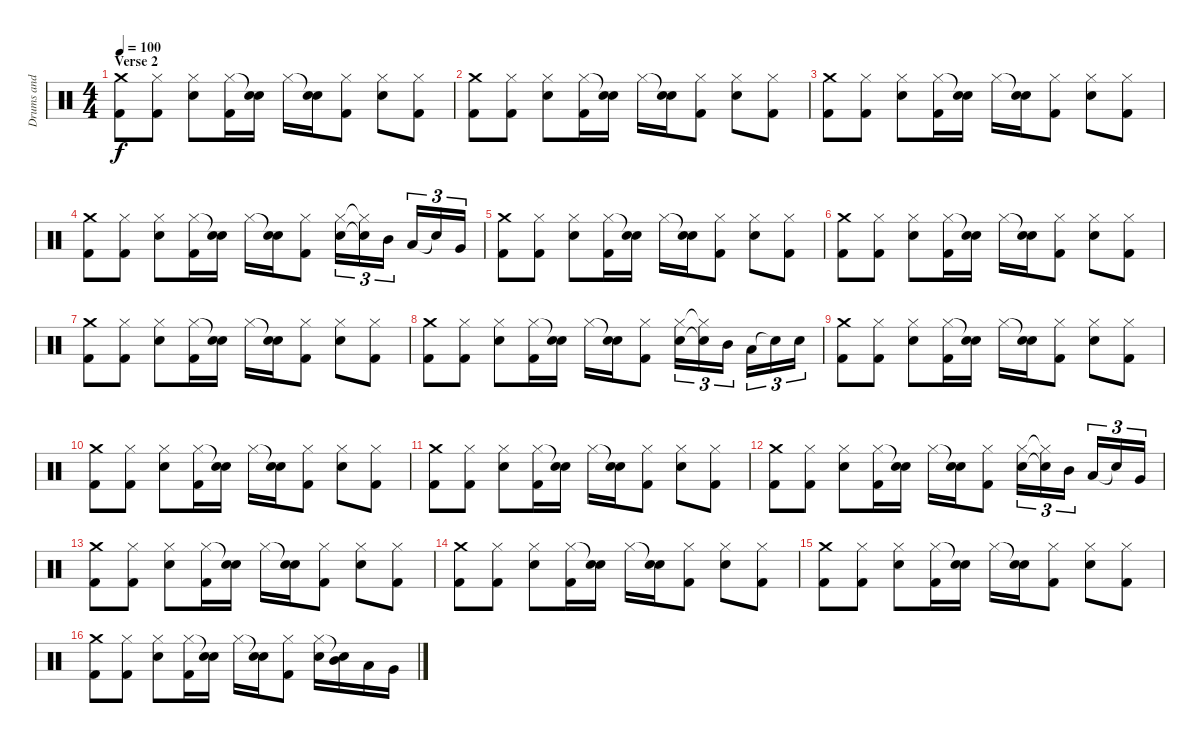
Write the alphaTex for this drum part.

\track ("Drums and Percussion" "Drums and ") {instrument percussion}
\staff {score}
\articulation defaults
\ts (4 4)
\section ("" "Verse 2")
\tempo 100
\clef neutral
\ks c
("Crash medium (hit)" "Kick (hit) 2").8{dy f} ("Hi-Hat (closed)" "Kick (hit) 2").8 ("Hi-Hat (closed)" "Electric Snare (hit)").8 ("Hi-Hat (closed)" "Kick (hit) 2").16 ("Snare (hit)"{t} "Electric Snare (hit)").16 "Hi-Hat (closed)".16 ("Snare (hit)"{t} "Electric Snare (hit)").16 ("Hi-Hat (closed)" "Kick (hit) 2").8 ("Hi-Hat (closed)" "Electric Snare (hit)").8 ("Hi-Hat (closed)" "Kick (hit) 2").8 |
("Crash medium (hit)" "Kick (hit) 2").8 ("Hi-Hat (closed)" "Kick (hit) 2").8 ("Hi-Hat (closed)" "Electric Snare (hit)").8 ("Hi-Hat (closed)" "Kick (hit) 2").16 ("Snare (hit)"{t} "Electric Snare (hit)").16 "Hi-Hat (closed)".16 ("Snare (hit)"{t} "Electric Snare (hit)").16 ("Hi-Hat (closed)" "Kick (hit) 2").8 ("Hi-Hat (closed)" "Electric Snare (hit)").8 ("Hi-Hat (closed)" "Kick (hit) 2").8 |
("Crash medium (hit)" "Kick (hit) 2").8 ("Hi-Hat (closed)" "Kick (hit) 2").8 ("Hi-Hat (closed)" "Electric Snare (hit)").8 ("Hi-Hat (closed)" "Kick (hit) 2").16 ("Snare (hit)"{t} "Electric Snare (hit)").16 "Hi-Hat (closed)".16 ("Snare (hit)"{t} "Electric Snare (hit)").16 ("Hi-Hat (closed)" "Kick (hit) 2").8 ("Hi-Hat (closed)" "Electric Snare (hit)").8 ("Hi-Hat (closed)" "Kick (hit) 2").8 |
("Crash medium (hit)" "Kick (hit) 2").8 ("Hi-Hat (closed)" "Kick (hit) 2").8 ("Hi-Hat (closed)" "Electric Snare (hit)").8 ("Hi-Hat (closed)" "Kick (hit) 2").16 ("Snare (hit)"{t} "Electric Snare (hit)").16 "Hi-Hat (closed)".16 ("Snare (hit)"{t} "Electric Snare (hit)").16 ("Hi-Hat (closed)" "Kick (hit) 2").8 ("Hi-Hat (closed)" "Electric Snare (hit)").16{tu (3 2)} ("Hi-Hat (closed)"{t} "Snare (hit)"{t}).16{tu (3 2)} "Mid Tom (hit)".16{tu (3 2)} "Low Tom (hit)".16{tu (3 2)} "Snare (hit)"{t}.16{tu (3 2)} "Very Low Tom (hit)".16{tu (3 2)} |
("Crash medium (hit)" "Kick (hit) 2").8 ("Hi-Hat (closed)" "Kick (hit) 2").8 ("Hi-Hat (closed)" "Electric Snare (hit)").8 ("Hi-Hat (closed)" "Kick (hit) 2").16 ("Snare (hit)"{t} "Electric Snare (hit)").16 "Hi-Hat (closed)".16 ("Snare (hit)"{t} "Electric Snare (hit)").16 ("Hi-Hat (closed)" "Kick (hit) 2").8 ("Hi-Hat (closed)" "Electric Snare (hit)").8 ("Hi-Hat (closed)" "Kick (hit) 2").8 |
("Crash medium (hit)" "Kick (hit) 2").8 ("Hi-Hat (closed)" "Kick (hit) 2").8 ("Hi-Hat (closed)" "Electric Snare (hit)").8 ("Hi-Hat (closed)" "Kick (hit) 2").16 ("Snare (hit)"{t} "Electric Snare (hit)").16 "Hi-Hat (closed)".16 ("Snare (hit)"{t} "Electric Snare (hit)").16 ("Hi-Hat (closed)" "Kick (hit) 2").8 ("Hi-Hat (closed)" "Electric Snare (hit)").8 ("Hi-Hat (closed)" "Kick (hit) 2").8 |
("Crash medium (hit)" "Kick (hit) 2").8 ("Hi-Hat (closed)" "Kick (hit) 2").8 ("Hi-Hat (closed)" "Electric Snare (hit)").8 ("Hi-Hat (closed)" "Kick (hit) 2").16 ("Snare (hit)"{t} "Electric Snare (hit)").16 "Hi-Hat (closed)".16 ("Snare (hit)"{t} "Electric Snare (hit)").16 ("Hi-Hat (closed)" "Kick (hit) 2").8 ("Hi-Hat (closed)" "Electric Snare (hit)").8 ("Hi-Hat (closed)" "Kick (hit) 2").8 |
("Crash medium (hit)" "Kick (hit) 2").8 ("Hi-Hat (closed)" "Kick (hit) 2").8 ("Hi-Hat (closed)" "Electric Snare (hit)").8 ("Hi-Hat (closed)" "Kick (hit) 2").16 ("Snare (hit)"{t} "Electric Snare (hit)").16 "Hi-Hat (closed)".16 ("Snare (hit)"{t} "Electric Snare (hit)").16 ("Hi-Hat (closed)" "Kick (hit) 2").8 ("Hi-Hat (closed)" "Electric Snare (hit)").16{tu (3 2)} ("Hi-Hat (closed)"{t} "Snare (hit)"{t}).16{tu (3 2)} "Mid Tom (hit)".16{tu (3 2)} "Low Tom (hit)".16{tu (3 2)} "Snare (hit)"{t}.16{tu (3 2)} "Electric Snare (hit)".16{tu (3 2)} |
("Crash medium (hit)" "Kick (hit) 2").8 ("Hi-Hat (closed)" "Kick (hit) 2").8 ("Hi-Hat (closed)" "Electric Snare (hit)").8 ("Hi-Hat (closed)" "Kick (hit) 2").16 ("Snare (hit)"{t} "Electric Snare (hit)").16 "Hi-Hat (closed)".16 ("Snare (hit)"{t} "Electric Snare (hit)").16 ("Hi-Hat (closed)" "Kick (hit) 2").8 ("Hi-Hat (closed)" "Electric Snare (hit)").8 ("Hi-Hat (closed)" "Kick (hit) 2").8 |
("Crash medium (hit)" "Kick (hit) 2").8 ("Hi-Hat (closed)" "Kick (hit) 2").8 ("Hi-Hat (closed)" "Electric Snare (hit)").8 ("Hi-Hat (closed)" "Kick (hit) 2").16 ("Snare (hit)"{t} "Electric Snare (hit)").16 "Hi-Hat (closed)".16 ("Snare (hit)"{t} "Electric Snare (hit)").16 ("Hi-Hat (closed)" "Kick (hit) 2").8 ("Hi-Hat (closed)" "Electric Snare (hit)").8 ("Hi-Hat (closed)" "Kick (hit) 2").8 |
("Crash medium (hit)" "Kick (hit) 2").8 ("Hi-Hat (closed)" "Kick (hit) 2").8 ("Hi-Hat (closed)" "Electric Snare (hit)").8 ("Hi-Hat (closed)" "Kick (hit) 2").16 ("Snare (hit)"{t} "Electric Snare (hit)").16 "Hi-Hat (closed)".16 ("Snare (hit)"{t} "Electric Snare (hit)").16 ("Hi-Hat (closed)" "Kick (hit) 2").8 ("Hi-Hat (closed)" "Electric Snare (hit)").8 ("Hi-Hat (closed)" "Kick (hit) 2").8 |
("Crash medium (hit)" "Kick (hit) 2").8 ("Hi-Hat (closed)" "Kick (hit) 2").8 ("Hi-Hat (closed)" "Electric Snare (hit)").8 ("Hi-Hat (closed)" "Kick (hit) 2").16 ("Snare (hit)"{t} "Electric Snare (hit)").16 "Hi-Hat (closed)".16 ("Snare (hit)"{t} "Electric Snare (hit)").16 ("Hi-Hat (closed)" "Kick (hit) 2").8 ("Hi-Hat (closed)" "Electric Snare (hit)").16{tu (3 2)} ("Hi-Hat (closed)"{t} "Snare (hit)"{t}).16{tu (3 2)} "Mid Tom (hit)".16{tu (3 2)} "Low Tom (hit)".16{tu (3 2)} "Snare (hit)"{t}.16{tu (3 2)} "Very Low Tom (hit)".16{tu (3 2)} |
("Crash medium (hit)" "Kick (hit) 2").8 ("Hi-Hat (closed)" "Kick (hit) 2").8 ("Hi-Hat (closed)" "Electric Snare (hit)").8 ("Hi-Hat (closed)" "Kick (hit) 2").16 ("Snare (hit)"{t} "Electric Snare (hit)").16 "Hi-Hat (closed)".16 ("Snare (hit)"{t} "Electric Snare (hit)").16 ("Hi-Hat (closed)" "Kick (hit) 2").8 ("Hi-Hat (closed)" "Electric Snare (hit)").8 ("Hi-Hat (closed)" "Kick (hit) 2").8 |
("Crash medium (hit)" "Kick (hit) 2").8 ("Hi-Hat (closed)" "Kick (hit) 2").8 ("Hi-Hat (closed)" "Electric Snare (hit)").8 ("Hi-Hat (closed)" "Kick (hit) 2").16 ("Snare (hit)"{t} "Electric Snare (hit)").16 "Hi-Hat (closed)".16 ("Snare (hit)"{t} "Electric Snare (hit)").16 ("Hi-Hat (closed)" "Kick (hit) 2").8 ("Hi-Hat (closed)" "Electric Snare (hit)").8 ("Hi-Hat (closed)" "Kick (hit) 2").8 |
("Crash medium (hit)" "Kick (hit) 2").8 ("Hi-Hat (closed)" "Kick (hit) 2").8 ("Hi-Hat (closed)" "Electric Snare (hit)").8 ("Hi-Hat (closed)" "Kick (hit) 2").16 ("Snare (hit)"{t} "Electric Snare (hit)").16 "Hi-Hat (closed)".16 ("Snare (hit)"{t} "Electric Snare (hit)").16 ("Hi-Hat (closed)" "Kick (hit) 2").8 ("Hi-Hat (closed)" "Electric Snare (hit)").8 ("Hi-Hat (closed)" "Kick (hit) 2").8 |
("Crash medium (hit)" "Kick (hit) 2").8 ("Hi-Hat (closed)" "Kick (hit) 2").8 ("Hi-Hat (closed)" "Electric Snare (hit)").8 ("Hi-Hat (closed)" "Kick (hit) 2").16 ("Snare (hit)"{t} "Electric Snare (hit)").16 "Hi-Hat (closed)".16 ("Snare (hit)"{t} "Electric Snare (hit)").16 ("Hi-Hat (closed)" "Kick (hit) 2").8 ("Hi-Hat (closed)" "Electric Snare (hit)").16 ("Snare (hit)"{t} "Mid Tom (hit)").16 "Low Tom (hit)".16 "Very Low Tom (hit)".16
